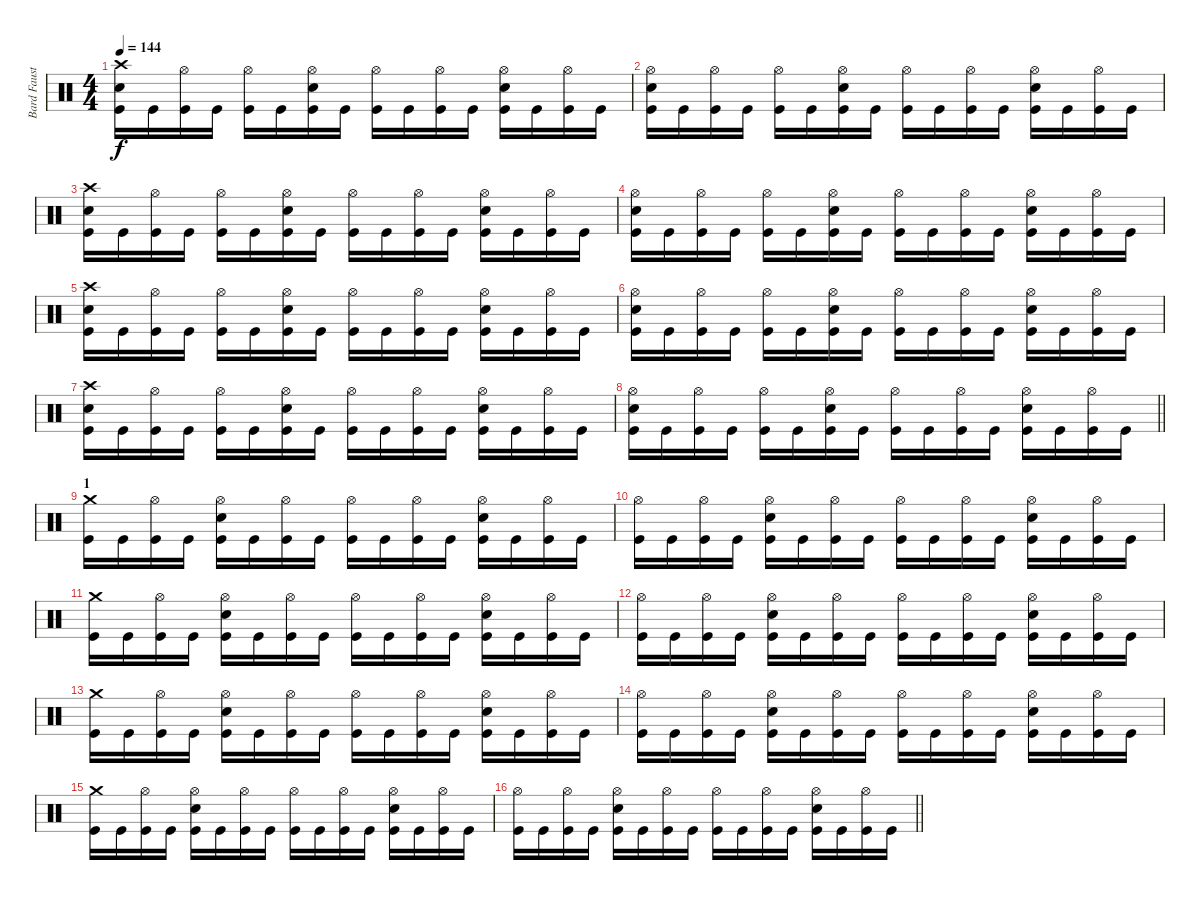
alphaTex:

\track ("Bard Faust" "Bard Faust") {instrument percussion}
\staff {score}
\articulation defaults
\ts (4 4)
\section ("" "")
\tempo 144
\clef neutral
\ks c
("Crash high (hit)" "Snare (hit) 2" "Kick (hit)").16{dy f} "Kick (hit)".16 ("Hi-Hat (open)" "Kick (hit)").16 "Kick (hit)".16 ("Hi-Hat (open)" "Kick (hit)").16 "Kick (hit)".16 ("Hi-Hat (open)" "Snare (hit) 2" "Kick (hit)").16 "Kick (hit)".16 ("Hi-Hat (open)" "Kick (hit)").16 "Kick (hit)".16 ("Hi-Hat (open)" "Kick (hit)").16 "Kick (hit)".16 ("Hi-Hat (open)" "Snare (hit) 2" "Kick (hit)").16 "Kick (hit)".16 ("Hi-Hat (open)" "Kick (hit)").16 "Kick (hit)".16 |
("Hi-Hat (open)" "Snare (hit) 2" "Kick (hit)").16 "Kick (hit)".16 ("Hi-Hat (open)" "Kick (hit)").16 "Kick (hit)".16 ("Hi-Hat (open)" "Kick (hit)").16 "Kick (hit)".16 ("Hi-Hat (open)" "Snare (hit) 2" "Kick (hit)").16 "Kick (hit)".16 ("Hi-Hat (open)" "Kick (hit)").16 "Kick (hit)".16 ("Hi-Hat (open)" "Kick (hit)").16 "Kick (hit)".16 ("Hi-Hat (open)" "Snare (hit) 2" "Kick (hit)").16 "Kick (hit)".16 ("Hi-Hat (open)" "Kick (hit)").16 "Kick (hit)".16 |
("Crash high (hit)" "Snare (hit) 2" "Kick (hit)").16 "Kick (hit)".16 ("Hi-Hat (open)" "Kick (hit)").16 "Kick (hit)".16 ("Hi-Hat (open)" "Kick (hit)").16 "Kick (hit)".16 ("Hi-Hat (open)" "Snare (hit) 2" "Kick (hit)").16 "Kick (hit)".16 ("Hi-Hat (open)" "Kick (hit)").16 "Kick (hit)".16 ("Hi-Hat (open)" "Kick (hit)").16 "Kick (hit)".16 ("Hi-Hat (open)" "Snare (hit) 2" "Kick (hit)").16 "Kick (hit)".16 ("Hi-Hat (open)" "Kick (hit)").16 "Kick (hit)".16 |
("Hi-Hat (open)" "Snare (hit) 2" "Kick (hit)").16 "Kick (hit)".16 ("Hi-Hat (open)" "Kick (hit)").16 "Kick (hit)".16 ("Hi-Hat (open)" "Kick (hit)").16 "Kick (hit)".16 ("Hi-Hat (open)" "Snare (hit) 2" "Kick (hit)").16 "Kick (hit)".16 ("Hi-Hat (open)" "Kick (hit)").16 "Kick (hit)".16 ("Hi-Hat (open)" "Kick (hit)").16 "Kick (hit)".16 ("Hi-Hat (open)" "Snare (hit) 2" "Kick (hit)").16 "Kick (hit)".16 ("Hi-Hat (open)" "Kick (hit)").16 "Kick (hit)".16 |
("Crash high (hit)" "Snare (hit) 2" "Kick (hit)").16 "Kick (hit)".16 ("Hi-Hat (open)" "Kick (hit)").16 "Kick (hit)".16 ("Hi-Hat (open)" "Kick (hit)").16 "Kick (hit)".16 ("Hi-Hat (open)" "Snare (hit) 2" "Kick (hit)").16 "Kick (hit)".16 ("Hi-Hat (open)" "Kick (hit)").16 "Kick (hit)".16 ("Hi-Hat (open)" "Kick (hit)").16 "Kick (hit)".16 ("Hi-Hat (open)" "Snare (hit) 2" "Kick (hit)").16 "Kick (hit)".16 ("Hi-Hat (open)" "Kick (hit)").16 "Kick (hit)".16 |
("Hi-Hat (open)" "Snare (hit) 2" "Kick (hit)").16 "Kick (hit)".16 ("Hi-Hat (open)" "Kick (hit)").16 "Kick (hit)".16 ("Hi-Hat (open)" "Kick (hit)").16 "Kick (hit)".16 ("Hi-Hat (open)" "Snare (hit) 2" "Kick (hit)").16 "Kick (hit)".16 ("Hi-Hat (open)" "Kick (hit)").16 "Kick (hit)".16 ("Hi-Hat (open)" "Kick (hit)").16 "Kick (hit)".16 ("Hi-Hat (open)" "Snare (hit) 2" "Kick (hit)").16 "Kick (hit)".16 ("Hi-Hat (open)" "Kick (hit)").16 "Kick (hit)".16 |
("Crash high (hit)" "Snare (hit) 2" "Kick (hit)").16 "Kick (hit)".16 ("Hi-Hat (open)" "Kick (hit)").16 "Kick (hit)".16 ("Hi-Hat (open)" "Kick (hit)").16 "Kick (hit)".16 ("Hi-Hat (open)" "Snare (hit) 2" "Kick (hit)").16 "Kick (hit)".16 ("Hi-Hat (open)" "Kick (hit)").16 "Kick (hit)".16 ("Hi-Hat (open)" "Kick (hit)").16 "Kick (hit)".16 ("Hi-Hat (open)" "Snare (hit) 2" "Kick (hit)").16 "Kick (hit)".16 ("Hi-Hat (open)" "Kick (hit)").16 "Kick (hit)".16 |
\barLineRight lightlight
("Hi-Hat (open)" "Snare (hit) 2" "Kick (hit)").16 "Kick (hit)".16 ("Hi-Hat (open)" "Kick (hit)").16 "Kick (hit)".16 ("Hi-Hat (open)" "Kick (hit)").16 "Kick (hit)".16 ("Hi-Hat (open)" "Snare (hit) 2" "Kick (hit)").16 "Kick (hit)".16 ("Hi-Hat (open)" "Kick (hit)").16 "Kick (hit)".16 ("Hi-Hat (open)" "Kick (hit)").16 "Kick (hit)".16 ("Hi-Hat (open)" "Snare (hit) 2" "Kick (hit)").16 "Kick (hit)".16 ("Hi-Hat (open)" "Kick (hit)").16 "Kick (hit)".16 |
\section ("" "1")
("Crash medium (hit)" "Kick (hit)").16 "Kick (hit)".16 ("Hi-Hat (open)" "Kick (hit)").16 "Kick (hit)".16 ("Hi-Hat (open)" "Snare (hit) 2" "Kick (hit)").16 "Kick (hit)".16 ("Hi-Hat (open)" "Kick (hit)").16 "Kick (hit)".16 ("Hi-Hat (open)" "Kick (hit)").16 "Kick (hit)".16 ("Hi-Hat (open)" "Kick (hit)").16 "Kick (hit)".16 ("Hi-Hat (open)" "Snare (hit) 2" "Kick (hit)").16 "Kick (hit)".16 ("Hi-Hat (open)" "Kick (hit)").16 "Kick (hit)".16 |
("Hi-Hat (open)" "Kick (hit)").16 "Kick (hit)".16 ("Hi-Hat (open)" "Kick (hit)").16 "Kick (hit)".16 ("Hi-Hat (open)" "Snare (hit) 2" "Kick (hit)").16 "Kick (hit)".16 ("Hi-Hat (open)" "Kick (hit)").16 "Kick (hit)".16 ("Hi-Hat (open)" "Kick (hit)").16 "Kick (hit)".16 ("Hi-Hat (open)" "Kick (hit)").16 "Kick (hit)".16 ("Hi-Hat (open)" "Snare (hit) 2" "Kick (hit)").16 "Kick (hit)".16 ("Hi-Hat (open)" "Kick (hit)").16 "Kick (hit)".16 |
("Crash medium (hit)" "Kick (hit)").16 "Kick (hit)".16 ("Hi-Hat (open)" "Kick (hit)").16 "Kick (hit)".16 ("Hi-Hat (open)" "Snare (hit) 2" "Kick (hit)").16 "Kick (hit)".16 ("Hi-Hat (open)" "Kick (hit)").16 "Kick (hit)".16 ("Hi-Hat (open)" "Kick (hit)").16 "Kick (hit)".16 ("Hi-Hat (open)" "Kick (hit)").16 "Kick (hit)".16 ("Hi-Hat (open)" "Snare (hit) 2" "Kick (hit)").16 "Kick (hit)".16 ("Hi-Hat (open)" "Kick (hit)").16 "Kick (hit)".16 |
("Hi-Hat (open)" "Kick (hit)").16 "Kick (hit)".16 ("Hi-Hat (open)" "Kick (hit)").16 "Kick (hit)".16 ("Hi-Hat (open)" "Snare (hit) 2" "Kick (hit)").16 "Kick (hit)".16 ("Hi-Hat (open)" "Kick (hit)").16 "Kick (hit)".16 ("Hi-Hat (open)" "Kick (hit)").16 "Kick (hit)".16 ("Hi-Hat (open)" "Kick (hit)").16 "Kick (hit)".16 ("Hi-Hat (open)" "Snare (hit) 2" "Kick (hit)").16 "Kick (hit)".16 ("Hi-Hat (open)" "Kick (hit)").16 "Kick (hit)".16 |
("Crash medium (hit)" "Kick (hit)").16 "Kick (hit)".16 ("Hi-Hat (open)" "Kick (hit)").16 "Kick (hit)".16 ("Hi-Hat (open)" "Snare (hit) 2" "Kick (hit)").16 "Kick (hit)".16 ("Hi-Hat (open)" "Kick (hit)").16 "Kick (hit)".16 ("Hi-Hat (open)" "Kick (hit)").16 "Kick (hit)".16 ("Hi-Hat (open)" "Kick (hit)").16 "Kick (hit)".16 ("Hi-Hat (open)" "Snare (hit) 2" "Kick (hit)").16 "Kick (hit)".16 ("Hi-Hat (open)" "Kick (hit)").16 "Kick (hit)".16 |
("Hi-Hat (open)" "Kick (hit)").16 "Kick (hit)".16 ("Hi-Hat (open)" "Kick (hit)").16 "Kick (hit)".16 ("Hi-Hat (open)" "Snare (hit) 2" "Kick (hit)").16 "Kick (hit)".16 ("Hi-Hat (open)" "Kick (hit)").16 "Kick (hit)".16 ("Hi-Hat (open)" "Kick (hit)").16 "Kick (hit)".16 ("Hi-Hat (open)" "Kick (hit)").16 "Kick (hit)".16 ("Hi-Hat (open)" "Snare (hit) 2" "Kick (hit)").16 "Kick (hit)".16 ("Hi-Hat (open)" "Kick (hit)").16 "Kick (hit)".16 |
("Crash medium (hit)" "Kick (hit)").16 "Kick (hit)".16 ("Hi-Hat (open)" "Kick (hit)").16 "Kick (hit)".16 ("Hi-Hat (open)" "Snare (hit) 2" "Kick (hit)").16 "Kick (hit)".16 ("Hi-Hat (open)" "Kick (hit)").16 "Kick (hit)".16 ("Hi-Hat (open)" "Kick (hit)").16 "Kick (hit)".16 ("Hi-Hat (open)" "Kick (hit)").16 "Kick (hit)".16 ("Hi-Hat (open)" "Snare (hit) 2" "Kick (hit)").16 "Kick (hit)".16 ("Hi-Hat (open)" "Kick (hit)").16 "Kick (hit)".16 |
\barLineRight lightlight
("Hi-Hat (open)" "Kick (hit)").16 "Kick (hit)".16 ("Hi-Hat (open)" "Kick (hit)").16 "Kick (hit)".16 ("Hi-Hat (open)" "Snare (hit) 2" "Kick (hit)").16 "Kick (hit)".16 ("Hi-Hat (open)" "Kick (hit)").16 "Kick (hit)".16 ("Hi-Hat (open)" "Kick (hit)").16 "Kick (hit)".16 ("Hi-Hat (open)" "Kick (hit)").16 "Kick (hit)".16 ("Hi-Hat (open)" "Snare (hit) 2" "Kick (hit)").16 "Kick (hit)".16 ("Hi-Hat (open)" "Kick (hit)").16 "Kick (hit)".16
